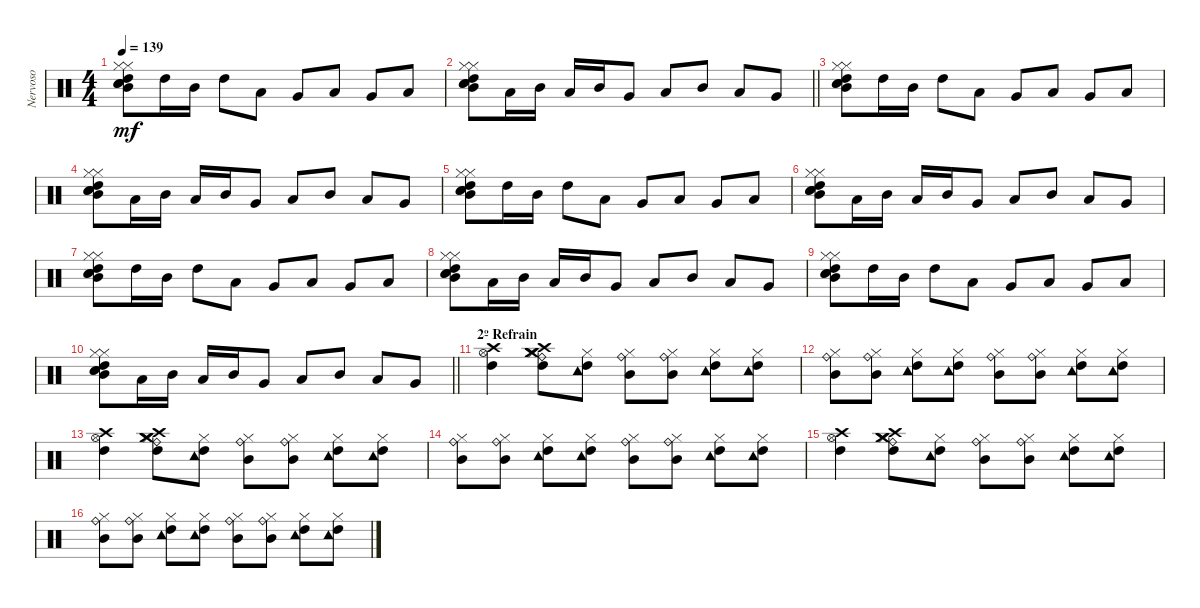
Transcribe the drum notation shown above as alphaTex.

\track ("Nervoso" "Nervoso") {instrument percussion}
\staff {score}
\articulation defaults
\ts (4 4)
\tempo 139
\clef neutral
\ks c
("High Tom (hit)" "Electric Snare (hit)" "Hi-Hat (closed)" "Hi-Hat (closed)" "Electric Snare (hit)" "Mid Tom (hit)").8{dy mf} "High Tom (hit)".16 "Mid Tom (hit)".16 "High Tom (hit)".8 "Low Tom (hit)".8 "Very Low Tom (hit)".8 "Low Tom (hit)".8 "Very Low Tom (hit)".8 "Low Tom (hit)".8 |
\barLineRight lightlight
("High Tom (hit)" "Electric Snare (hit)" "Hi-Hat (closed)" "Hi-Hat (closed)" "Electric Snare (hit)" "Mid Tom (hit)").8 "Low Tom (hit)".16 "Mid Tom (hit)".16 "Low Tom (hit)".16 "Mid Tom (hit)".16 "Very Low Tom (hit)".8 "Low Tom (hit)".8 "Mid Tom (hit)".8 "Low Tom (hit)".8 "Very Low Tom (hit)".8 |
("High Tom (hit)" "Electric Snare (hit)" "Hi-Hat (closed)" "Hi-Hat (closed)" "Electric Snare (hit)" "Mid Tom (hit)").8 "High Tom (hit)".16 "Mid Tom (hit)".16 "High Tom (hit)".8 "Low Tom (hit)".8 "Very Low Tom (hit)".8 "Low Tom (hit)".8 "Very Low Tom (hit)".8 "Low Tom (hit)".8 |
("High Tom (hit)" "Electric Snare (hit)" "Hi-Hat (closed)" "Hi-Hat (closed)" "Electric Snare (hit)" "Mid Tom (hit)").8 "Low Tom (hit)".16 "Mid Tom (hit)".16 "Low Tom (hit)".16 "Mid Tom (hit)".16 "Very Low Tom (hit)".8 "Low Tom (hit)".8 "Mid Tom (hit)".8 "Low Tom (hit)".8 "Very Low Tom (hit)".8 |
("High Tom (hit)" "Electric Snare (hit)" "Hi-Hat (closed)" "Hi-Hat (closed)" "Electric Snare (hit)" "Mid Tom (hit)").8 "High Tom (hit)".16 "Mid Tom (hit)".16 "High Tom (hit)".8 "Low Tom (hit)".8 "Very Low Tom (hit)".8 "Low Tom (hit)".8 "Very Low Tom (hit)".8 "Low Tom (hit)".8 |
("High Tom (hit)" "Electric Snare (hit)" "Hi-Hat (closed)" "Hi-Hat (closed)" "Electric Snare (hit)" "Mid Tom (hit)").8 "Low Tom (hit)".16 "Mid Tom (hit)".16 "Low Tom (hit)".16 "Mid Tom (hit)".16 "Very Low Tom (hit)".8 "Low Tom (hit)".8 "Mid Tom (hit)".8 "Low Tom (hit)".8 "Very Low Tom (hit)".8 |
("High Tom (hit)" "Electric Snare (hit)" "Hi-Hat (closed)" "Hi-Hat (closed)" "Electric Snare (hit)" "Mid Tom (hit)").8 "High Tom (hit)".16 "Mid Tom (hit)".16 "High Tom (hit)".8 "Low Tom (hit)".8 "Very Low Tom (hit)".8 "Low Tom (hit)".8 "Very Low Tom (hit)".8 "Low Tom (hit)".8 |
("High Tom (hit)" "Electric Snare (hit)" "Hi-Hat (closed)" "Hi-Hat (closed)" "Electric Snare (hit)" "Mid Tom (hit)").8 "Low Tom (hit)".16 "Mid Tom (hit)".16 "Low Tom (hit)".16 "Mid Tom (hit)".16 "Very Low Tom (hit)".8 "Low Tom (hit)".8 "Mid Tom (hit)".8 "Low Tom (hit)".8 "Very Low Tom (hit)".8 |
("High Tom (hit)" "Electric Snare (hit)" "Hi-Hat (closed)" "Hi-Hat (closed)" "Electric Snare (hit)" "Mid Tom (hit)").8 "High Tom (hit)".16 "Mid Tom (hit)".16 "High Tom (hit)".8 "Low Tom (hit)".8 "Very Low Tom (hit)".8 "Low Tom (hit)".8 "Very Low Tom (hit)".8 "Low Tom (hit)".8 |
\barLineRight lightlight
("High Tom (hit)" "Electric Snare (hit)" "Hi-Hat (closed)" "Hi-Hat (closed)" "Electric Snare (hit)" "Mid Tom (hit)").8 "Low Tom (hit)".16 "Mid Tom (hit)".16 "Low Tom (hit)".16 "Mid Tom (hit)".16 "Very Low Tom (hit)".8 "Low Tom (hit)".8 "Mid Tom (hit)".8 "Low Tom (hit)".8 "Very Low Tom (hit)".8 |
\section ("" "2º Refrain")
("Hi-Hat (open)" "Crash high (hit)" "High Tom (hit)").4 ("High Tom (hit)" "Crash high (hit)" "Crash medium (hit)" "Hi-Hat (closed)" "Ride (bell)" "Crash medium (hit)").8 ("High Tom (hit)" "Hi-Hat (closed)" "Tambourine (hit)").8 ("Ride (bell)" "Mid Tom (hit)" "Hi-Hat (closed)").8 ("Ride (bell)" "Mid Tom (hit)" "Hi-Hat (closed)").8 ("High Tom (hit)" "Hi-Hat (closed)" "Tambourine (hit)").8 ("High Tom (hit)" "Hi-Hat (closed)" "Tambourine (hit)").8 |
("Ride (bell)" "Mid Tom (hit)" "Hi-Hat (closed)").8 ("Ride (bell)" "Mid Tom (hit)" "Hi-Hat (closed)").8 ("High Tom (hit)" "Hi-Hat (closed)" "Tambourine (hit)").8 ("High Tom (hit)" "Hi-Hat (closed)" "Tambourine (hit)").8 ("Ride (bell)" "Mid Tom (hit)" "Hi-Hat (closed)").8 ("Ride (bell)" "Mid Tom (hit)" "Hi-Hat (closed)").8 ("High Tom (hit)" "Hi-Hat (closed)" "Tambourine (hit)").8 ("High Tom (hit)" "Hi-Hat (closed)" "Tambourine (hit)").8 |
("Hi-Hat (open)" "Crash high (hit)" "High Tom (hit)").4 ("High Tom (hit)" "Crash high (hit)" "Crash medium (hit)" "Hi-Hat (closed)" "Ride (bell)" "Crash medium (hit)").8 ("High Tom (hit)" "Hi-Hat (closed)" "Tambourine (hit)").8 ("Ride (bell)" "Mid Tom (hit)" "Hi-Hat (closed)").8 ("Ride (bell)" "Mid Tom (hit)" "Hi-Hat (closed)").8 ("High Tom (hit)" "Hi-Hat (closed)" "Tambourine (hit)").8 ("High Tom (hit)" "Hi-Hat (closed)" "Tambourine (hit)").8 |
("Ride (bell)" "Mid Tom (hit)" "Hi-Hat (closed)").8 ("Ride (bell)" "Mid Tom (hit)" "Hi-Hat (closed)").8 ("High Tom (hit)" "Hi-Hat (closed)" "Tambourine (hit)").8 ("High Tom (hit)" "Hi-Hat (closed)" "Tambourine (hit)").8 ("Ride (bell)" "Mid Tom (hit)" "Hi-Hat (closed)").8 ("Ride (bell)" "Mid Tom (hit)" "Hi-Hat (closed)").8 ("High Tom (hit)" "Hi-Hat (closed)" "Tambourine (hit)").8 ("High Tom (hit)" "Hi-Hat (closed)" "Tambourine (hit)").8 |
("Hi-Hat (open)" "Crash high (hit)" "High Tom (hit)").4 ("High Tom (hit)" "Crash high (hit)" "Crash medium (hit)" "Hi-Hat (closed)" "Ride (bell)" "Crash medium (hit)").8 ("High Tom (hit)" "Hi-Hat (closed)" "Tambourine (hit)").8 ("Ride (bell)" "Mid Tom (hit)" "Hi-Hat (closed)").8 ("Ride (bell)" "Mid Tom (hit)" "Hi-Hat (closed)").8 ("High Tom (hit)" "Hi-Hat (closed)" "Tambourine (hit)").8 ("High Tom (hit)" "Hi-Hat (closed)" "Tambourine (hit)").8 |
("Ride (bell)" "Mid Tom (hit)" "Hi-Hat (closed)").8 ("Ride (bell)" "Mid Tom (hit)" "Hi-Hat (closed)").8 ("High Tom (hit)" "Hi-Hat (closed)" "Tambourine (hit)").8 ("High Tom (hit)" "Hi-Hat (closed)" "Tambourine (hit)").8 ("Ride (bell)" "Mid Tom (hit)" "Hi-Hat (closed)").8 ("Ride (bell)" "Mid Tom (hit)" "Hi-Hat (closed)").8 ("High Tom (hit)" "Hi-Hat (closed)" "Tambourine (hit)").8 ("High Tom (hit)" "Hi-Hat (closed)" "Tambourine (hit)").8
